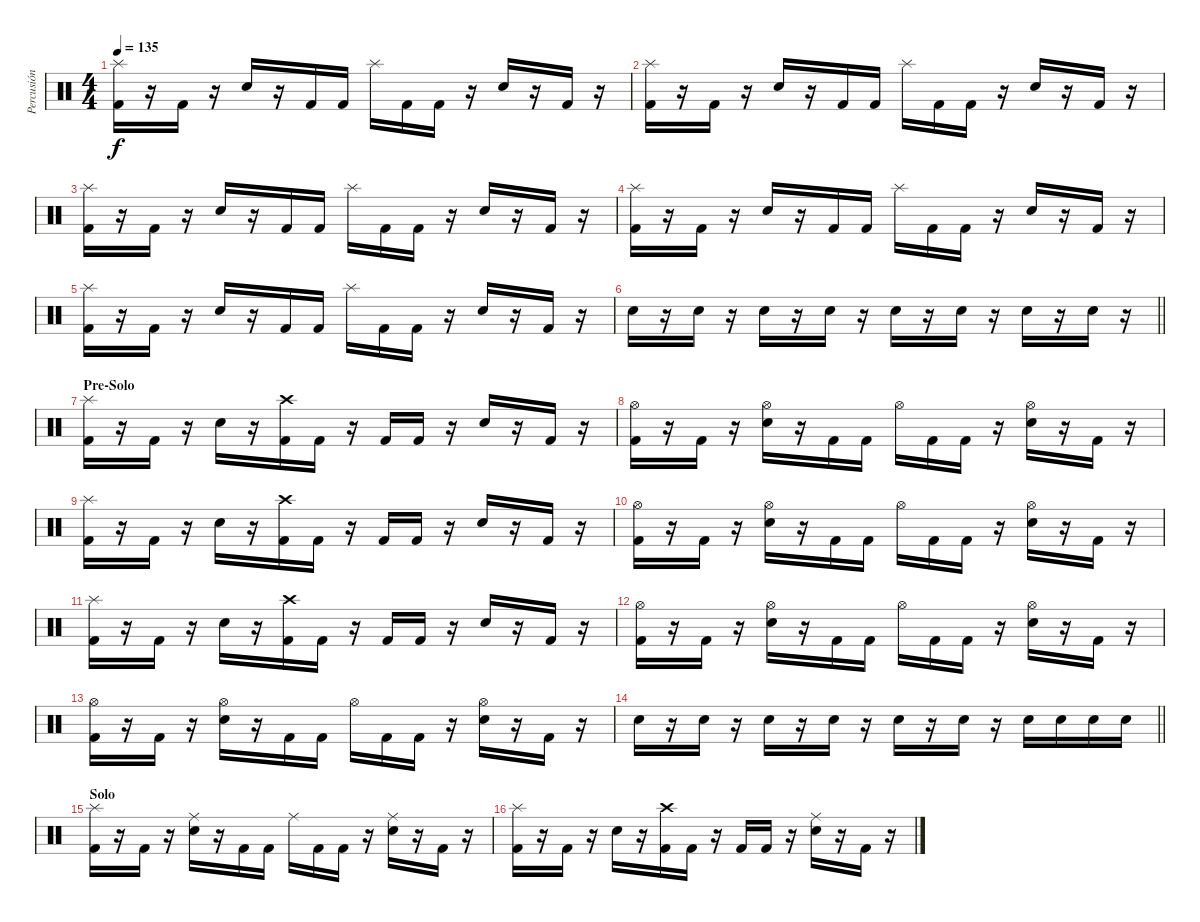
\track ("Percusión" "Percusión") {instrument percussion}
\staff {score}
\articulation defaults
\ts (4 4)
\tempo 135
\clef neutral
\ks c
("Splash (hit)" "Kick (hit) 2").16{dy f} r.16 "Kick (hit) 2".16 r.16 "Electric Snare (hit)".16 r.16 "Kick (hit) 2".16 "Kick (hit) 2".16 "Splash (hit)".16 "Kick (hit) 2".16 "Kick (hit) 2".16 r.16 "Electric Snare (hit)".16 r.16 "Kick (hit) 2".16 r.16 |
("Splash (hit)" "Kick (hit) 2").16 r.16 "Kick (hit) 2".16 r.16 "Electric Snare (hit)".16 r.16 "Kick (hit) 2".16 "Kick (hit) 2".16 "Splash (hit)".16 "Kick (hit) 2".16 "Kick (hit) 2".16 r.16 "Electric Snare (hit)".16 r.16 "Kick (hit) 2".16 r.16 |
("Splash (hit)" "Kick (hit) 2").16 r.16 "Kick (hit) 2".16 r.16 "Electric Snare (hit)".16 r.16 "Kick (hit) 2".16 "Kick (hit) 2".16 "Splash (hit)".16 "Kick (hit) 2".16 "Kick (hit) 2".16 r.16 "Electric Snare (hit)".16 r.16 "Kick (hit) 2".16 r.16 |
("Splash (hit)" "Kick (hit) 2").16 r.16 "Kick (hit) 2".16 r.16 "Electric Snare (hit)".16 r.16 "Kick (hit) 2".16 "Kick (hit) 2".16 "Splash (hit)".16 "Kick (hit) 2".16 "Kick (hit) 2".16 r.16 "Electric Snare (hit)".16 r.16 "Kick (hit) 2".16 r.16 |
("Splash (hit)" "Kick (hit) 2").16 r.16 "Kick (hit) 2".16 r.16 "Electric Snare (hit)".16 r.16 "Kick (hit) 2".16 "Kick (hit) 2".16 "Splash (hit)".16 "Kick (hit) 2".16 "Kick (hit) 2".16 r.16 "Electric Snare (hit)".16 r.16 "Kick (hit) 2".16 r.16 |
\barLineRight lightlight "Electric Snare (hit)".16
r.16 "Electric Snare (hit)".16 r.16 "Electric Snare (hit)".16 r.16 "Electric Snare (hit)".16 r.16 "Electric Snare (hit)".16 r.16 "Electric Snare (hit)".16 r.16 "Electric Snare (hit)".16 r.16 "Electric Snare (hit)".16 r.16 |
\section ("" "Pre-Solo")
("Splash (hit)" "Kick (hit) 2").16 r.16 "Kick (hit) 2".16 r.16 "Electric Snare (hit)".16 r.16 ("Crash high (hit)" "Kick (hit) 2").16 "Kick (hit) 2".16 r.16 "Kick (hit) 2".16 "Kick (hit) 2".16 r.16 "Electric Snare (hit)".16 r.16 "Kick (hit) 2".16 r.16 |
("Hi-Hat (open)" "Kick (hit) 2").16 r.16 "Kick (hit) 2".16 r.16 ("Hi-Hat (open)" "Electric Snare (hit)").16 r.16 "Kick (hit) 2".16 "Kick (hit) 2".16 "Hi-Hat (open)".16 "Kick (hit) 2".16 "Kick (hit) 2".16 r.16 ("Hi-Hat (open)" "Electric Snare (hit)").16 r.16 "Kick (hit) 2".16 r.16 |
("Splash (hit)" "Kick (hit) 2").16 r.16 "Kick (hit) 2".16 r.16 "Electric Snare (hit)".16 r.16 ("Crash high (hit)" "Kick (hit) 2").16 "Kick (hit) 2".16 r.16 "Kick (hit) 2".16 "Kick (hit) 2".16 r.16 "Electric Snare (hit)".16 r.16 "Kick (hit) 2".16 r.16 |
("Hi-Hat (open)" "Kick (hit) 2").16 r.16 "Kick (hit) 2".16 r.16 ("Hi-Hat (open)" "Electric Snare (hit)").16 r.16 "Kick (hit) 2".16 "Kick (hit) 2".16 "Hi-Hat (open)".16 "Kick (hit) 2".16 "Kick (hit) 2".16 r.16 ("Hi-Hat (open)" "Electric Snare (hit)").16 r.16 "Kick (hit) 2".16 r.16 |
("Splash (hit)" "Kick (hit) 2").16 r.16 "Kick (hit) 2".16 r.16 "Electric Snare (hit)".16 r.16 ("Crash high (hit)" "Kick (hit) 2").16 "Kick (hit) 2".16 r.16 "Kick (hit) 2".16 "Kick (hit) 2".16 r.16 "Electric Snare (hit)".16 r.16 "Kick (hit) 2".16 r.16 |
("Hi-Hat (open)" "Kick (hit) 2").16 r.16 "Kick (hit) 2".16 r.16 ("Hi-Hat (open)" "Electric Snare (hit)").16 r.16 "Kick (hit) 2".16 "Kick (hit) 2".16 "Hi-Hat (open)".16 "Kick (hit) 2".16 "Kick (hit) 2".16 r.16 ("Hi-Hat (open)" "Electric Snare (hit)").16 r.16 "Kick (hit) 2".16 r.16 |
("Hi-Hat (open)" "Kick (hit) 2").16 r.16 "Kick (hit) 2".16 r.16 ("Hi-Hat (open)" "Electric Snare (hit)").16 r.16 "Kick (hit) 2".16 "Kick (hit) 2".16 "Hi-Hat (open)".16 "Kick (hit) 2".16 "Kick (hit) 2".16 r.16 ("Hi-Hat (open)" "Electric Snare (hit)").16 r.16 "Kick (hit) 2".16 r.16 |
\barLineRight lightlight "Electric Snare (hit)".16
r.16 "Electric Snare (hit)".16 r.16 "Electric Snare (hit)".16 r.16 "Electric Snare (hit)".16 r.16 "Electric Snare (hit)".16 r.16 "Electric Snare (hit)".16 r.16 "Electric Snare (hit)".16 "Electric Snare (hit)".16 "Electric Snare (hit)".16 "Electric Snare (hit)".16 |
\section ("" "Solo")
("Splash (hit)" "Kick (hit) 2").16 r.16 "Kick (hit) 2".16 r.16 ("Ride (middle)" "Electric Snare (hit)").16 r.16 "Kick (hit) 2".16 "Kick (hit) 2".16 "Ride (middle)".16 "Kick (hit) 2".16 "Kick (hit) 2".16 r.16 ("Ride (middle)" "Electric Snare (hit)").16 r.16 "Kick (hit) 2".16 r.16 |
("Splash (hit)" "Kick (hit) 2").16 r.16 "Kick (hit) 2".16 r.16 "Electric Snare (hit)".16 r.16 ("Crash high (hit)" "Kick (hit) 2").16 "Kick (hit) 2".16 r.16 "Kick (hit) 2".16 "Kick (hit) 2".16 r.16 ("Ride (middle)" "Electric Snare (hit)").16 r.16 "Kick (hit) 2".16 r.16
